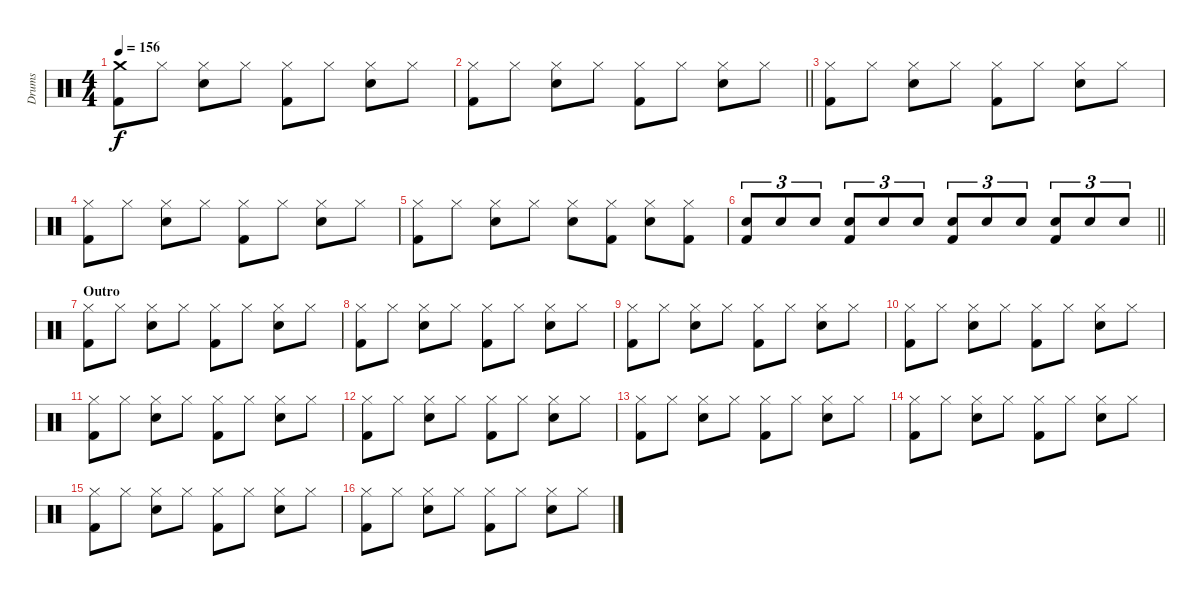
\track ("Drums" "Drums") {instrument percussion}
\staff {score}
\articulation defaults
\ts (4 4)
\tempo 156
\clef neutral
\ks c
("Crash medium (hit)" "Kick (hit) 2").8{dy f} "Hi-Hat (closed)".8 ("Hi-Hat (closed)" "Electric Snare (hit)").8 "Hi-Hat (closed)".8 ("Hi-Hat (closed)" "Kick (hit) 2").8 "Hi-Hat (closed)".8 ("Hi-Hat (closed)" "Electric Snare (hit)").8 "Hi-Hat (closed)".8 |
\barLineRight lightlight
("Hi-Hat (closed)" "Kick (hit) 2").8 "Hi-Hat (closed)".8 ("Hi-Hat (closed)" "Electric Snare (hit)").8 "Hi-Hat (closed)".8 ("Hi-Hat (closed)" "Kick (hit) 2").8 "Hi-Hat (closed)".8 ("Hi-Hat (closed)" "Electric Snare (hit)").8 "Hi-Hat (closed)".8 |
("Hi-Hat (closed)" "Kick (hit) 2").8 "Hi-Hat (closed)".8 ("Hi-Hat (closed)" "Electric Snare (hit)").8 "Hi-Hat (closed)".8 ("Hi-Hat (closed)" "Kick (hit) 2").8 "Hi-Hat (closed)".8 ("Hi-Hat (closed)" "Electric Snare (hit)").8 "Hi-Hat (closed)".8 |
("Hi-Hat (closed)" "Kick (hit) 2").8 "Hi-Hat (closed)".8 ("Hi-Hat (closed)" "Electric Snare (hit)").8 "Hi-Hat (closed)".8 ("Hi-Hat (closed)" "Kick (hit) 2").8 "Hi-Hat (closed)".8 ("Hi-Hat (closed)" "Electric Snare (hit)").8 "Hi-Hat (closed)".8 |
("Hi-Hat (closed)" "Kick (hit) 2").8 "Hi-Hat (closed)".8 ("Hi-Hat (closed)" "Electric Snare (hit)").8 "Hi-Hat (closed)".8 ("Hi-Hat (closed)" "Electric Snare (hit)").8 ("Hi-Hat (closed)" "Kick (hit) 2").8 ("Hi-Hat (closed)" "Electric Snare (hit)").8 ("Hi-Hat (closed)" "Kick (hit) 2").8 |
\barLineRight lightlight
("Electric Snare (hit)" "Kick (hit) 2").8{tu (3 2)} "Electric Snare (hit)".8{tu (3 2)} "Electric Snare (hit)".8{tu (3 2)} ("Electric Snare (hit)" "Kick (hit) 2").8{tu (3 2)} "Electric Snare (hit)".8{tu (3 2)} "Electric Snare (hit)".8{tu (3 2)} ("Electric Snare (hit)" "Kick (hit) 2").8{tu (3 2)} "Electric Snare (hit)".8{tu (3 2)} "Electric Snare (hit)".8{tu (3 2)} ("Electric Snare (hit)" "Kick (hit) 2").8{tu (3 2)} "Electric Snare (hit)".8{tu (3 2)} "Electric Snare (hit)".8{tu (3 2)} |
\section ("" "Outro")
("Hi-Hat (closed)" "Kick (hit) 2").8 "Hi-Hat (closed)".8 ("Hi-Hat (closed)" "Electric Snare (hit)").8 "Hi-Hat (closed)".8 ("Hi-Hat (closed)" "Kick (hit) 2").8 "Hi-Hat (closed)".8 ("Hi-Hat (closed)" "Electric Snare (hit)").8 "Hi-Hat (closed)".8 |
("Hi-Hat (closed)" "Kick (hit) 2").8 "Hi-Hat (closed)".8 ("Hi-Hat (closed)" "Electric Snare (hit)").8 "Hi-Hat (closed)".8 ("Hi-Hat (closed)" "Kick (hit) 2").8 "Hi-Hat (closed)".8 ("Hi-Hat (closed)" "Electric Snare (hit)").8 "Hi-Hat (closed)".8 |
("Hi-Hat (closed)" "Kick (hit) 2").8 "Hi-Hat (closed)".8 ("Hi-Hat (closed)" "Electric Snare (hit)").8 "Hi-Hat (closed)".8 ("Hi-Hat (closed)" "Kick (hit) 2").8 "Hi-Hat (closed)".8 ("Hi-Hat (closed)" "Electric Snare (hit)").8 "Hi-Hat (closed)".8 |
("Hi-Hat (closed)" "Kick (hit) 2").8 "Hi-Hat (closed)".8 ("Hi-Hat (closed)" "Electric Snare (hit)").8 "Hi-Hat (closed)".8 ("Hi-Hat (closed)" "Kick (hit) 2").8 "Hi-Hat (closed)".8 ("Hi-Hat (closed)" "Electric Snare (hit)").8 "Hi-Hat (closed)".8 |
("Hi-Hat (closed)" "Kick (hit) 2").8 "Hi-Hat (closed)".8 ("Hi-Hat (closed)" "Electric Snare (hit)").8 "Hi-Hat (closed)".8 ("Hi-Hat (closed)" "Kick (hit) 2").8 "Hi-Hat (closed)".8 ("Hi-Hat (closed)" "Electric Snare (hit)").8 "Hi-Hat (closed)".8 |
("Hi-Hat (closed)" "Kick (hit) 2").8 "Hi-Hat (closed)".8 ("Hi-Hat (closed)" "Electric Snare (hit)").8 "Hi-Hat (closed)".8 ("Hi-Hat (closed)" "Kick (hit) 2").8 "Hi-Hat (closed)".8 ("Hi-Hat (closed)" "Electric Snare (hit)").8 "Hi-Hat (closed)".8 |
("Hi-Hat (closed)" "Kick (hit) 2").8 "Hi-Hat (closed)".8 ("Hi-Hat (closed)" "Electric Snare (hit)").8 "Hi-Hat (closed)".8 ("Hi-Hat (closed)" "Kick (hit) 2").8 "Hi-Hat (closed)".8 ("Hi-Hat (closed)" "Electric Snare (hit)").8 "Hi-Hat (closed)".8 |
("Hi-Hat (closed)" "Kick (hit) 2").8 "Hi-Hat (closed)".8 ("Hi-Hat (closed)" "Electric Snare (hit)").8 "Hi-Hat (closed)".8 ("Hi-Hat (closed)" "Kick (hit) 2").8 "Hi-Hat (closed)".8 ("Hi-Hat (closed)" "Electric Snare (hit)").8 "Hi-Hat (closed)".8 |
("Hi-Hat (closed)" "Kick (hit) 2").8 "Hi-Hat (closed)".8 ("Hi-Hat (closed)" "Electric Snare (hit)").8 "Hi-Hat (closed)".8 ("Hi-Hat (closed)" "Kick (hit) 2").8 "Hi-Hat (closed)".8 ("Hi-Hat (closed)" "Electric Snare (hit)").8 "Hi-Hat (closed)".8 |
("Hi-Hat (closed)" "Kick (hit) 2").8 "Hi-Hat (closed)".8 ("Hi-Hat (closed)" "Electric Snare (hit)").8 "Hi-Hat (closed)".8 ("Hi-Hat (closed)" "Kick (hit) 2").8 "Hi-Hat (closed)".8 ("Hi-Hat (closed)" "Electric Snare (hit)").8 "Hi-Hat (closed)".8
